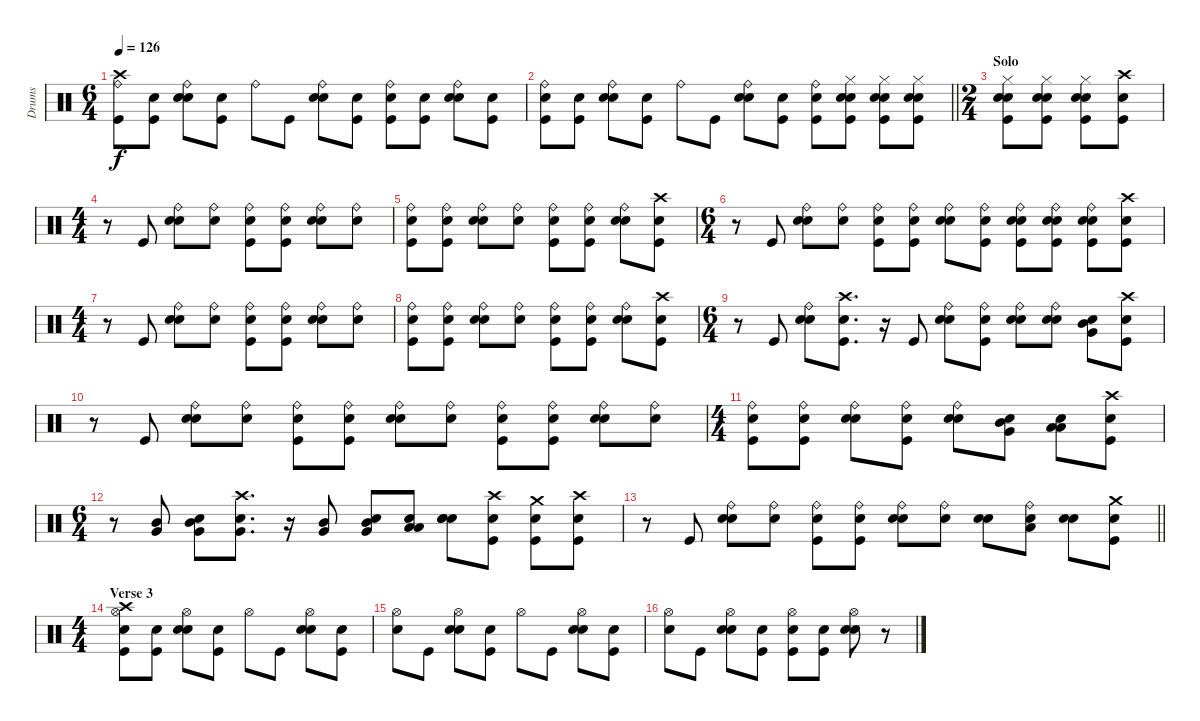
\track ("Drums" "Drums") {instrument percussion}
\staff {score}
\articulation defaults
\ts (6 4)
\tempo 126
\clef neutral
\ks c
("Ride (bell)" "Crash high (hit)" "Kick (hit)").8{dy f} ("Snare (hit)" "Kick (hit)").8 ("Snare (hit)" "Ride (bell)" "Electric Snare (hit)").8 ("Snare (hit)" "Kick (hit)").8 "Ride (bell)".8 "Kick (hit)".8 ("Snare (hit)" "Electric Snare (hit)" "Ride (bell)").8 ("Snare (hit)" "Kick (hit)").8 ("Snare (hit)" "Kick (hit)" "Ride (bell)").8 ("Snare (hit)" "Kick (hit)").8 ("Snare (hit)" "Electric Snare (hit)" "Ride (bell)").8 ("Snare (hit)" "Kick (hit)").8 |
\barLineRight lightlight
("Snare (hit)" "Ride (bell)" "Kick (hit)").8 ("Snare (hit)" "Kick (hit)").8 ("Snare (hit)" "Ride (bell)" "Electric Snare (hit)").8 ("Snare (hit)" "Kick (hit)").8 "Ride (bell)".8 "Kick (hit)".8 ("Snare (hit)" "Ride (bell)" "Electric Snare (hit)").8 ("Snare (hit)" "Kick (hit)").8 ("Snare (hit)" "Kick (hit)" "Ride (bell)").8 ("Snare (hit)" "Electric Snare (hit)" "Kick (hit)" "Hi-Hat (closed)").8 ("Snare (hit)" "Kick (hit)" "Hi-Hat (closed)" "Electric Snare (hit)").8 ("Snare (hit)" "Kick (hit)" "Electric Snare (hit)" "Hi-Hat (closed)").8 |
\ts (2 4)
\section ("" "Solo")
("Snare (hit)" "Kick (hit)" "Electric Snare (hit)" "Hi-Hat (closed)").8 ("Snare (hit)" "Hi-Hat (closed)" "Electric Snare (hit)" "Kick (hit)").8 ("Snare (hit)" "Hi-Hat (closed)" "Kick (hit)" "Electric Snare (hit)").8 ("Snare (hit)" "Crash high (hit)" "Kick (hit)").8 |
\ts (4 4)
r.8 "Kick (hit)".8 ("Snare (hit)" "Electric Snare (hit)" "Ride (bell)").8 ("Snare (hit)" "Ride (bell)").8 ("Snare (hit)" "Ride (bell)" "Kick (hit)").8 ("Snare (hit)" "Ride (bell)" "Kick (hit)").8 ("Snare (hit)" "Electric Snare (hit)" "Ride (bell)").8 ("Snare (hit)" "Ride (bell)").8 |
("Snare (hit)" "Ride (bell)" "Kick (hit)").8 ("Snare (hit)" "Kick (hit)" "Ride (bell)").8 ("Snare (hit)" "Electric Snare (hit)" "Ride (bell)").8 ("Snare (hit)" "Ride (bell)").8 ("Snare (hit)" "Ride (bell)" "Kick (hit)").8 ("Snare (hit)" "Ride (bell)" "Kick (hit)").8 ("Snare (hit)" "Ride (bell)" "Electric Snare (hit)").8 ("Snare (hit)" "Kick (hit)" "Crash high (hit)").8 |
\ts (6 4)
r.8 "Kick (hit)".8 ("Snare (hit)" "Ride (bell)" "Electric Snare (hit)").8 ("Snare (hit)" "Ride (bell)").8 ("Snare (hit)" "Ride (bell)" "Kick (hit)").8 ("Snare (hit)" "Ride (bell)" "Kick (hit)").8 ("Snare (hit)" "Ride (bell)" "Electric Snare (hit)").8 ("Snare (hit)" "Ride (bell)" "Kick (hit)").8 ("Snare (hit)" "Ride (bell)" "Kick (hit)" "Electric Snare (hit)").8 ("Snare (hit)" "Ride (bell)" "Electric Snare (hit)" "Kick (hit)").8 ("Snare (hit)" "Kick (hit)" "Ride (bell)" "Electric Snare (hit)").8 ("Snare (hit)" "Crash high (hit)" "Kick (hit)").8 |
\ts (4 4)
r.8 "Kick (hit)".8 ("Snare (hit)" "Electric Snare (hit)" "Ride (bell)").8 ("Snare (hit)" "Ride (bell)").8 ("Snare (hit)" "Ride (bell)" "Kick (hit)").8 ("Snare (hit)" "Kick (hit)" "Ride (bell)").8 ("Snare (hit)" "Electric Snare (hit)" "Ride (bell)").8 ("Snare (hit)" "Ride (bell)").8 |
("Snare (hit)" "Ride (bell)" "Kick (hit)").8 ("Snare (hit)" "Ride (bell)" "Kick (hit)").8 ("Snare (hit)" "Ride (bell)" "Electric Snare (hit)").8 ("Snare (hit)" "Ride (bell)").8 ("Snare (hit)" "Ride (bell)" "Kick (hit)").8 ("Snare (hit)" "Kick (hit)" "Ride (bell)").8 ("Snare (hit)" "Electric Snare (hit)" "Ride (bell)").8 ("Snare (hit)" "Crash high (hit)" "Kick (hit)").8 |
\ts (6 4)
r.8 "Kick (hit)".8 ("Snare (hit)" "Ride (bell)" "Electric Snare (hit)").8 ("Snare (hit)" "Crash high (hit)" "Kick (hit)").8{d} r.16 "Kick (hit)".8 ("Snare (hit)" "Electric Snare (hit)" "Ride (bell)").8 ("Snare (hit)" "Kick (hit)" "Ride (bell)").8 ("Snare (hit)" "Ride (bell)" "Electric Snare (hit)").8 ("Snare (hit)" "Ride (bell)" "Electric Snare (hit)").8 ("Snare (hit)" "Mid Tom (hit)" "Very Low Tom (hit)").8 ("Snare (hit)" "Crash high (hit)" "Kick (hit)").8 |
r.8 "Kick (hit)".8 ("Snare (hit)" "Ride (bell)" "Electric Snare (hit)").8 ("Snare (hit)" "Ride (bell)").8 ("Snare (hit)" "Ride (bell)" "Kick (hit)").8 ("Snare (hit)" "Ride (bell)" "Kick (hit)").8 ("Snare (hit)" "Ride (bell)" "Electric Snare (hit)").8 ("Snare (hit)" "Ride (bell)").8 ("Snare (hit)" "Kick (hit)" "Ride (bell)").8 ("Snare (hit)" "Ride (bell)" "Kick (hit)").8 ("Snare (hit)" "Ride (bell)" "Electric Snare (hit)").8 ("Snare (hit)" "Ride (bell)").8 |
\ts (4 4)
("Snare (hit)" "Ride (bell)" "Kick (hit)").8 ("Snare (hit)" "Ride (bell)" "Kick (hit)").8 ("Snare (hit)" "Ride (bell)" "Electric Snare (hit)").8 ("Snare (hit)" "Kick (hit)" "Ride (bell)").8 ("Snare (hit)" "Ride (bell)" "Electric Snare (hit)").8 ("Snare (hit)" "Very Low Tom (hit)" "Mid Tom (hit)").8 ("Snare (hit)" "Low Tom (hit)" "Low Floor Tom (hit)").8 ("Snare (hit)" "Kick (hit)" "Crash high (hit)").8 |
\ts (6 4)
r.8 ("Mid Tom (hit)" "Very Low Tom (hit)").8 ("Snare (hit)" "Very Low Tom (hit)" "Mid Tom (hit)").8 ("Snare (hit)" "Very Low Tom (hit)" "Crash high (hit)").8{d} r.16 ("Very Low Tom (hit)" "Mid Tom (hit)").8 ("Snare (hit)" "Very Low Tom (hit)" "Mid Tom (hit)").8 ("Snare (hit)" "Low Floor Tom (hit)" "Low Tom (hit)").8 ("Snare (hit)" "Electric Snare (hit)" "Snare (hit) 2").8 ("Snare (hit)" "Kick (hit)" "Crash high (hit)").8 ("Snare (hit)" "Crash medium (hit)" "Kick (hit)").8 ("Snare (hit)" "Kick (hit)" "Crash high (hit)").8 |
\barLineRight lightlight
r.8 "Kick (hit)".8 ("Snare (hit)" "Ride (bell)" "Electric Snare (hit)").8 ("Snare (hit)" "Ride (bell)").8 ("Snare (hit)" "Kick (hit)" "Ride (bell)").8 ("Snare (hit)" "Ride (bell)" "Kick (hit)").8 ("Snare (hit)" "Ride (bell)" "Electric Snare (hit)").8 ("Snare (hit)" "Ride (bell)").8 ("Snare (hit)" "Electric Snare (hit)").8 ("Snare (hit)" "Ride (bell)" "Low Tom (hit)").8 ("Snare (hit)" "Electric Snare (hit)").8 ("Snare (hit)" "Crash medium (hit)" "Kick (hit)").8 |
\ts (4 4)
\section ("" "Verse 3")
("Snare (hit)" "Kick (hit)" "Hi-Hat (open)" "Crash high (hit)").8 ("Snare (hit)" "Kick (hit)").8 ("Snare (hit)" "Electric Snare (hit)" "Hi-Hat (open)").8 ("Snare (hit)" "Kick (hit)").8 "Hi-Hat (open)".8 "Kick (hit)".8 ("Snare (hit)" "Hi-Hat (open)" "Electric Snare (hit)").8 ("Snare (hit)" "Kick (hit)").8 |
("Snare (hit)" "Hi-Hat (open)").8 "Kick (hit)".8 ("Snare (hit)" "Hi-Hat (open)" "Electric Snare (hit)").8 ("Snare (hit)" "Kick (hit)").8 "Hi-Hat (open)".8 "Kick (hit)".8 ("Snare (hit)" "Electric Snare (hit)" "Hi-Hat (open)").8 ("Snare (hit)" "Kick (hit)").8 |
("Snare (hit)" "Hi-Hat (open)").8 "Kick (hit)".8 ("Snare (hit)" "Electric Snare (hit)" "Hi-Hat (open)").8 ("Snare (hit)" "Kick (hit)").8 ("Snare (hit)" "Kick (hit)" "Hi-Hat (open)").8 ("Snare (hit)" "Kick (hit)").8 ("Snare (hit)" "Electric Snare (hit)" "Hi-Hat (open)").8 r.8
